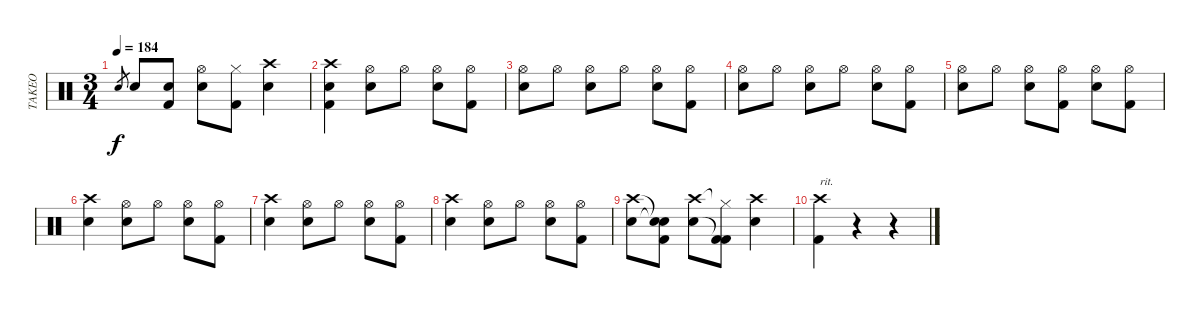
\track ("TAKEO" "TAKEO") {instrument percussion}
\staff {score}
\articulation defaults
\ts (3 4)
\tempo 184
\clef neutral
\ks c "Electric Snare (hit)".8{gr dy f} "Electric Snare (hit)".8
("Kick (hit) 2" "Snare (hit)"{t}).8 ("Hi-Hat (open)" "Electric Snare (hit)").8 ("Hi-Hat (closed)" "Kick (hit) 2").8 ("Crash high (hit)" "Electric Snare (hit)").4 |
("Crash high (hit)" "Electric Snare (hit)" "Kick (hit) 2").4 ("Hi-Hat (open)" "Electric Snare (hit)").8 "Hi-Hat (open)".8 ("Hi-Hat (open)" "Electric Snare (hit)").8 ("Hi-Hat (open)" "Kick (hit) 2").8 |
("Hi-Hat (open)" "Electric Snare (hit)").8 "Hi-Hat (open)".8 ("Hi-Hat (open)" "Electric Snare (hit)").8 "Hi-Hat (open)".8 ("Hi-Hat (open)" "Electric Snare (hit)").8 ("Hi-Hat (open)" "Kick (hit) 2").8 |
("Hi-Hat (open)" "Electric Snare (hit)").8 "Hi-Hat (open)".8 ("Hi-Hat (open)" "Electric Snare (hit)").8 "Hi-Hat (open)".8 ("Hi-Hat (open)" "Electric Snare (hit)").8 ("Hi-Hat (open)" "Kick (hit) 2").8 |
("Hi-Hat (open)" "Electric Snare (hit)").8 "Hi-Hat (open)".8 ("Hi-Hat (open)" "Electric Snare (hit)").8 ("Hi-Hat (open)" "Kick (hit) 2").8 ("Hi-Hat (open)" "Electric Snare (hit)").8 ("Hi-Hat (open)" "Kick (hit) 2").8 |
("Crash high (hit)" "Electric Snare (hit)").4 ("Hi-Hat (open)" "Electric Snare (hit)").8 "Hi-Hat (open)".8 ("Hi-Hat (open)" "Electric Snare (hit)").8 ("Hi-Hat (open)" "Kick (hit) 2").8 |
("Crash high (hit)" "Electric Snare (hit)").4 ("Hi-Hat (open)" "Electric Snare (hit)").8 "Hi-Hat (open)".8 ("Hi-Hat (open)" "Electric Snare (hit)").8 ("Hi-Hat (open)" "Kick (hit) 2").8 |
("Crash high (hit)" "Electric Snare (hit)").4 ("Hi-Hat (open)" "Electric Snare (hit)").8 "Hi-Hat (open)".8 ("Hi-Hat (open)" "Electric Snare (hit)").8 ("Hi-Hat (open)" "Kick (hit) 2").8 |
("Crash high (hit)" "Electric Snare (hit)").8 ("Snare (hit)"{t} "Snare (hit)"{t} "Kick (hit) 2").8 ("Crash high (hit)" "Electric Snare (hit)").8 ("Hi-Hat (closed)"{t} "Kick (hit) 2"{t} "Kick (hit) 2").8 ("Crash high (hit)" "Electric Snare (hit)").4 |
("Crash high (hit)" "Kick (hit) 2").4{txt "rit."} r.4 r.4
